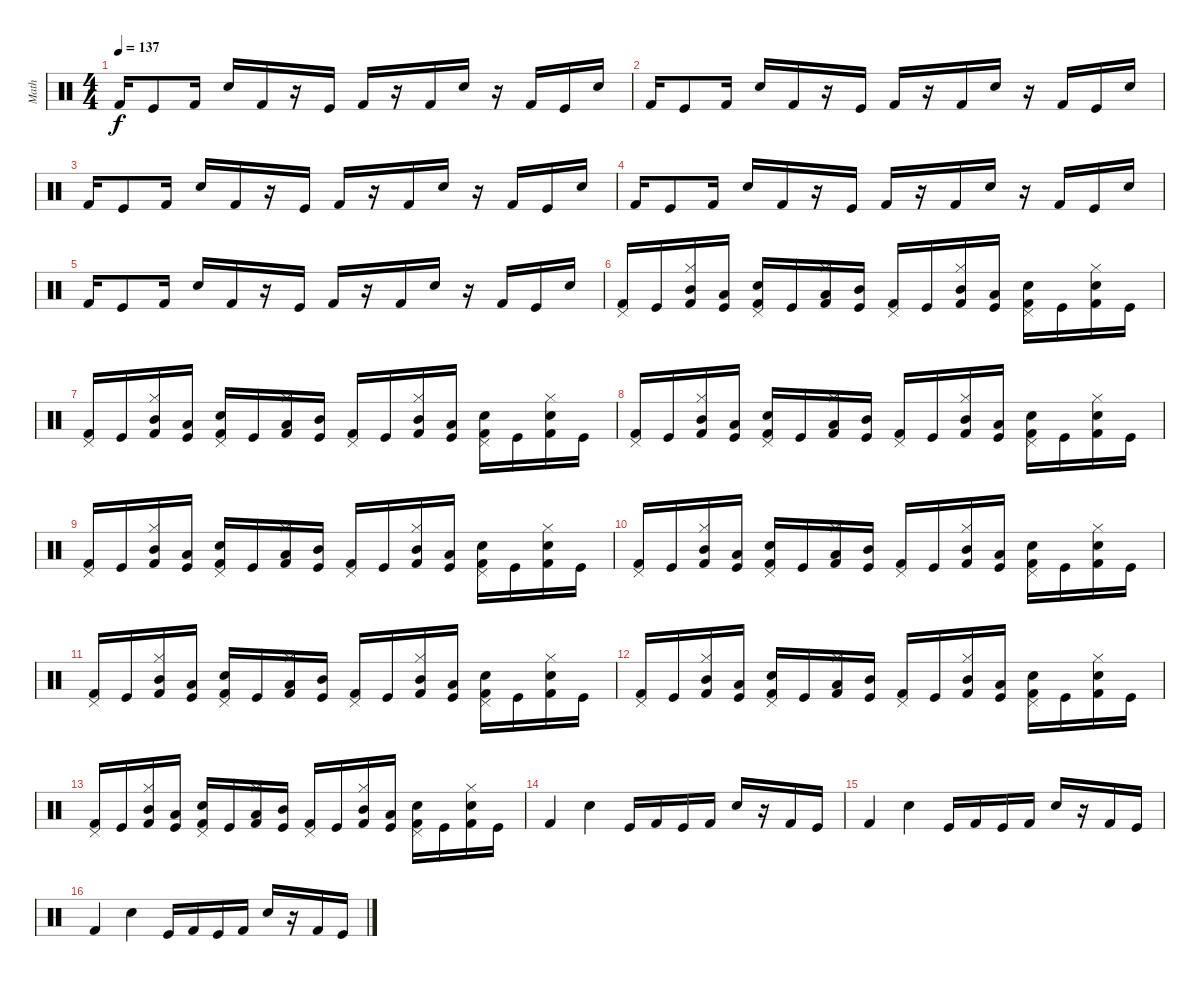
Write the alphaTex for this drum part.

\track ("Math" "Math") {instrument percussion}
\staff {score}
\articulation defaults
\ts (4 4)
\tempo 137
\clef neutral
\ks c "Kick (hit) 2".16{dy f} "Kick (hit)".8 "Kick (hit) 2".16 "Snare (hit) 2".16 "Kick (hit) 2".16
r.16 "Kick (hit)".16 "Kick (hit) 2".16 r.16 "Kick (hit) 2".16 "Snare (hit) 2".16 r.16 "Kick (hit) 2".16 "Kick (hit)".16 "Snare (hit) 2".16 |
"Kick (hit) 2".16 "Kick (hit)".8 "Kick (hit) 2".16 "Snare (hit) 2".16 "Kick (hit) 2".16 r.16 "Kick (hit)".16 "Kick (hit) 2".16 r.16 "Kick (hit) 2".16 "Snare (hit) 2".16 r.16 "Kick (hit) 2".16 "Kick (hit)".16 "Snare (hit) 2".16 |
"Kick (hit) 2".16 "Kick (hit)".8 "Kick (hit) 2".16 "Snare (hit) 2".16 "Kick (hit) 2".16 r.16 "Kick (hit)".16 "Kick (hit) 2".16 r.16 "Kick (hit) 2".16 "Snare (hit) 2".16 r.16 "Kick (hit) 2".16 "Kick (hit)".16 "Snare (hit) 2".16 |
"Kick (hit) 2".16 "Kick (hit)".8 "Kick (hit) 2".16 "Snare (hit) 2".16 "Kick (hit) 2".16 r.16 "Kick (hit)".16 "Kick (hit) 2".16 r.16 "Kick (hit) 2".16 "Snare (hit) 2".16 r.16 "Kick (hit) 2".16 "Kick (hit)".16 "Snare (hit) 2".16 |
"Kick (hit) 2".16 "Kick (hit)".8 "Kick (hit) 2".16 "Snare (hit) 2".16 "Kick (hit) 2".16 r.16 "Kick (hit)".16 "Kick (hit) 2".16 r.16 "Kick (hit) 2".16 "Snare (hit) 2".16 r.16 "Kick (hit) 2".16 "Kick (hit)".16 "Snare (hit) 2".16 |
("Pedal Hi-Hat (hit)" "Kick (hit) 2").16 "Kick (hit)".16 ("Hi-Hat (closed)" "Mid Tom (hit)" "Kick (hit) 2").16 ("Low Tom (hit)" "Kick (hit)").16 ("Pedal Hi-Hat (hit)" "Snare (hit) 2" "Kick (hit) 2").16 "Kick (hit)".16 ("Hi-Hat (closed)" "Low Tom (hit)" "Kick (hit) 2").16 ("Mid Tom (hit)" "Kick (hit)").16 ("Pedal Hi-Hat (hit)" "Kick (hit) 2").16 "Kick (hit)".16 ("Hi-Hat (closed)" "Mid Tom (hit)" "Kick (hit) 2").16 ("Low Tom (hit)" "Kick (hit)").16 ("Pedal Hi-Hat (hit)" "Snare (hit) 2" "Kick (hit) 2").16 "Kick (hit)".16 ("Hi-Hat (closed)" "Snare (hit) 2" "Kick (hit) 2").16 "Kick (hit)".16 |
("Pedal Hi-Hat (hit)" "Kick (hit) 2").16 "Kick (hit)".16 ("Hi-Hat (closed)" "Mid Tom (hit)" "Kick (hit) 2").16 ("Low Tom (hit)" "Kick (hit)").16 ("Pedal Hi-Hat (hit)" "Snare (hit) 2" "Kick (hit) 2").16 "Kick (hit)".16 ("Hi-Hat (closed)" "Low Tom (hit)" "Kick (hit) 2").16 ("Mid Tom (hit)" "Kick (hit)").16 ("Pedal Hi-Hat (hit)" "Kick (hit) 2").16 "Kick (hit)".16 ("Hi-Hat (closed)" "Mid Tom (hit)" "Kick (hit) 2").16 ("Low Tom (hit)" "Kick (hit)").16 ("Pedal Hi-Hat (hit)" "Snare (hit) 2" "Kick (hit) 2").16 "Kick (hit)".16 ("Hi-Hat (closed)" "Snare (hit) 2" "Kick (hit) 2").16 "Kick (hit)".16 |
("Pedal Hi-Hat (hit)" "Kick (hit) 2").16 "Kick (hit)".16 ("Hi-Hat (closed)" "Mid Tom (hit)" "Kick (hit) 2").16 ("Low Tom (hit)" "Kick (hit)").16 ("Pedal Hi-Hat (hit)" "Snare (hit) 2" "Kick (hit) 2").16 "Kick (hit)".16 ("Hi-Hat (closed)" "Low Tom (hit)" "Kick (hit) 2").16 ("Mid Tom (hit)" "Kick (hit)").16 ("Pedal Hi-Hat (hit)" "Kick (hit) 2").16 "Kick (hit)".16 ("Hi-Hat (closed)" "Mid Tom (hit)" "Kick (hit) 2").16 ("Low Tom (hit)" "Kick (hit)").16 ("Pedal Hi-Hat (hit)" "Snare (hit) 2" "Kick (hit) 2").16 "Kick (hit)".16 ("Hi-Hat (closed)" "Snare (hit) 2" "Kick (hit) 2").16 "Kick (hit)".16 |
("Pedal Hi-Hat (hit)" "Kick (hit) 2").16 "Kick (hit)".16 ("Hi-Hat (closed)" "Mid Tom (hit)" "Kick (hit) 2").16 ("Low Tom (hit)" "Kick (hit)").16 ("Pedal Hi-Hat (hit)" "Snare (hit) 2" "Kick (hit) 2").16 "Kick (hit)".16 ("Hi-Hat (closed)" "Low Tom (hit)" "Kick (hit) 2").16 ("Mid Tom (hit)" "Kick (hit)").16 ("Pedal Hi-Hat (hit)" "Kick (hit) 2").16 "Kick (hit)".16 ("Hi-Hat (closed)" "Mid Tom (hit)" "Kick (hit) 2").16 ("Low Tom (hit)" "Kick (hit)").16 ("Pedal Hi-Hat (hit)" "Snare (hit) 2" "Kick (hit) 2").16 "Kick (hit)".16 ("Hi-Hat (closed)" "Snare (hit) 2" "Kick (hit) 2").16 "Kick (hit)".16 |
("Pedal Hi-Hat (hit)" "Kick (hit) 2").16 "Kick (hit)".16 ("Hi-Hat (closed)" "Mid Tom (hit)" "Kick (hit) 2").16 ("Low Tom (hit)" "Kick (hit)").16 ("Pedal Hi-Hat (hit)" "Snare (hit) 2" "Kick (hit) 2").16 "Kick (hit)".16 ("Hi-Hat (closed)" "Low Tom (hit)" "Kick (hit) 2").16 ("Mid Tom (hit)" "Kick (hit)").16 ("Pedal Hi-Hat (hit)" "Kick (hit) 2").16 "Kick (hit)".16 ("Hi-Hat (closed)" "Mid Tom (hit)" "Kick (hit) 2").16 ("Low Tom (hit)" "Kick (hit)").16 ("Pedal Hi-Hat (hit)" "Snare (hit) 2" "Kick (hit) 2").16 "Kick (hit)".16 ("Hi-Hat (closed)" "Snare (hit) 2" "Kick (hit) 2").16 "Kick (hit)".16 |
("Pedal Hi-Hat (hit)" "Kick (hit) 2").16 "Kick (hit)".16 ("Hi-Hat (closed)" "Mid Tom (hit)" "Kick (hit) 2").16 ("Low Tom (hit)" "Kick (hit)").16 ("Pedal Hi-Hat (hit)" "Snare (hit) 2" "Kick (hit) 2").16 "Kick (hit)".16 ("Hi-Hat (closed)" "Low Tom (hit)" "Kick (hit) 2").16 ("Mid Tom (hit)" "Kick (hit)").16 ("Pedal Hi-Hat (hit)" "Kick (hit) 2").16 "Kick (hit)".16 ("Hi-Hat (closed)" "Mid Tom (hit)" "Kick (hit) 2").16 ("Low Tom (hit)" "Kick (hit)").16 ("Pedal Hi-Hat (hit)" "Snare (hit) 2" "Kick (hit) 2").16 "Kick (hit)".16 ("Hi-Hat (closed)" "Snare (hit) 2" "Kick (hit) 2").16 "Kick (hit)".16 |
("Pedal Hi-Hat (hit)" "Kick (hit) 2").16 "Kick (hit)".16 ("Hi-Hat (closed)" "Mid Tom (hit)" "Kick (hit) 2").16 ("Low Tom (hit)" "Kick (hit)").16 ("Pedal Hi-Hat (hit)" "Snare (hit) 2" "Kick (hit) 2").16 "Kick (hit)".16 ("Hi-Hat (closed)" "Low Tom (hit)" "Kick (hit) 2").16 ("Mid Tom (hit)" "Kick (hit)").16 ("Pedal Hi-Hat (hit)" "Kick (hit) 2").16 "Kick (hit)".16 ("Hi-Hat (closed)" "Mid Tom (hit)" "Kick (hit) 2").16 ("Low Tom (hit)" "Kick (hit)").16 ("Pedal Hi-Hat (hit)" "Snare (hit) 2" "Kick (hit) 2").16 "Kick (hit)".16 ("Hi-Hat (closed)" "Snare (hit) 2" "Kick (hit) 2").16 "Kick (hit)".16 |
("Pedal Hi-Hat (hit)" "Kick (hit) 2").16 "Kick (hit)".16 ("Hi-Hat (closed)" "Mid Tom (hit)" "Kick (hit) 2").16 ("Low Tom (hit)" "Kick (hit)").16 ("Pedal Hi-Hat (hit)" "Snare (hit) 2" "Kick (hit) 2").16 "Kick (hit)".16 ("Hi-Hat (closed)" "Low Tom (hit)" "Kick (hit) 2").16 ("Mid Tom (hit)" "Kick (hit)").16 ("Pedal Hi-Hat (hit)" "Kick (hit) 2").16 "Kick (hit)".16 ("Hi-Hat (closed)" "Mid Tom (hit)" "Kick (hit) 2").16 ("Low Tom (hit)" "Kick (hit)").16 ("Pedal Hi-Hat (hit)" "Snare (hit) 2" "Kick (hit) 2").16 "Kick (hit)".16 ("Hi-Hat (closed)" "Snare (hit) 2" "Kick (hit) 2").16 "Kick (hit)".16 |
"Kick (hit) 2".4 "Snare (hit) 2".4 "Kick (hit)".16 "Kick (hit) 2".16 "Kick (hit)".16 "Kick (hit) 2".16 "Snare (hit) 2".16 r.16 "Kick (hit) 2".16 "Kick (hit)".16 |
"Kick (hit) 2".4 "Snare (hit) 2".4 "Kick (hit)".16 "Kick (hit) 2".16 "Kick (hit)".16 "Kick (hit) 2".16 "Snare (hit) 2".16 r.16 "Kick (hit) 2".16 "Kick (hit)".16 |
"Kick (hit) 2".4 "Snare (hit) 2".4 "Kick (hit)".16 "Kick (hit) 2".16 "Kick (hit)".16 "Kick (hit) 2".16 "Snare (hit) 2".16 r.16 "Kick (hit) 2".16 "Kick (hit)".16
